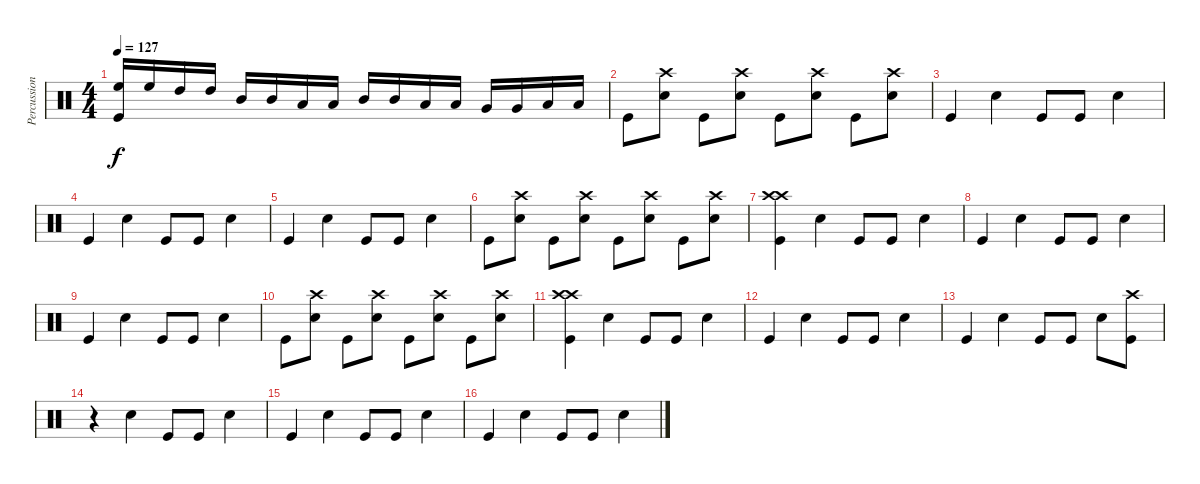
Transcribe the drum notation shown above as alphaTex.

\track ("Percussion" "Percussion") {instrument percussion}
\staff {score}
\articulation defaults
\ts (4 4)
\tempo 127
\clef neutral
\ks c
("High Floor Tom (hit)" "Kick (hit)").16{dy f} "High Floor Tom (hit)".16 "High Tom (hit)".16 "High Tom (hit)".16 "Mid Tom (hit)".16 "Mid Tom (hit)".16 "Low Tom (hit)".16 "Low Tom (hit)".16 "Mid Tom (hit)".16 "Mid Tom (hit)".16 "Low Tom (hit)".16 "Low Tom (hit)".16 "Very Low Tom (hit)".16 "Very Low Tom (hit)".16 "Low Floor Tom (hit)".16 "Low Floor Tom (hit)".16 |
"Kick (hit)".8 ("Crash high (hit)" "Snare (hit) 2").8 "Kick (hit)".8 ("Crash high (hit)" "Snare (hit) 2").8 "Kick (hit)".8 ("Crash high (hit)" "Snare (hit) 2").8 "Kick (hit)".8 ("Crash high (hit)" "Snare (hit) 2").8 |
"Kick (hit)".4 "Snare (hit) 2".4 "Kick (hit)".8 "Kick (hit)".8 "Snare (hit) 2".4 |
"Kick (hit)".4 "Snare (hit) 2".4 "Kick (hit)".8 "Kick (hit)".8 "Snare (hit) 2".4 |
"Kick (hit)".4 "Snare (hit) 2".4 "Kick (hit)".8 "Kick (hit)".8 "Snare (hit) 2".4 |
"Kick (hit)".8 ("Crash high (hit)" "Snare (hit) 2").8 "Kick (hit)".8 ("Crash high (hit)" "Snare (hit) 2").8 "Kick (hit)".8 ("Crash high (hit)" "Snare (hit) 2").8 "Kick (hit)".8 ("Crash high (hit)" "Snare (hit) 2").8 |
("Crash high (hit)" "Crash high (hit)" "Kick (hit)").4 "Snare (hit) 2".4 "Kick (hit)".8 "Kick (hit)".8 "Snare (hit) 2".4 |
"Kick (hit)".4 "Snare (hit) 2".4 "Kick (hit)".8 "Kick (hit)".8 "Snare (hit) 2".4 |
"Kick (hit)".4 "Snare (hit) 2".4 "Kick (hit)".8 "Kick (hit)".8 "Snare (hit) 2".4 |
"Kick (hit)".8 ("Crash high (hit)" "Snare (hit) 2").8 "Kick (hit)".8 ("Crash high (hit)" "Snare (hit) 2").8 "Kick (hit)".8 ("Crash high (hit)" "Snare (hit) 2").8 "Kick (hit)".8 ("Crash high (hit)" "Snare (hit) 2").8 |
("Crash high (hit)" "Crash high (hit)" "Kick (hit)").4 "Snare (hit) 2".4 "Kick (hit)".8 "Kick (hit)".8 "Snare (hit) 2".4 |
"Kick (hit)".4 "Snare (hit) 2".4 "Kick (hit)".8 "Kick (hit)".8 "Snare (hit) 2".4 |
"Kick (hit)".4 "Snare (hit) 2".4 "Kick (hit)".8 "Kick (hit)".8 "Snare (hit) 2".8 ("Crash high (hit)" "Kick (hit)").8 |
r.4 "Snare (hit) 2".4 "Kick (hit)".8 "Kick (hit)".8 "Snare (hit) 2".4 |
"Kick (hit)".4 "Snare (hit) 2".4 "Kick (hit)".8 "Kick (hit)".8 "Snare (hit) 2".4 |
"Kick (hit)".4 "Snare (hit) 2".4 "Kick (hit)".8 "Kick (hit)".8 "Snare (hit) 2".4
